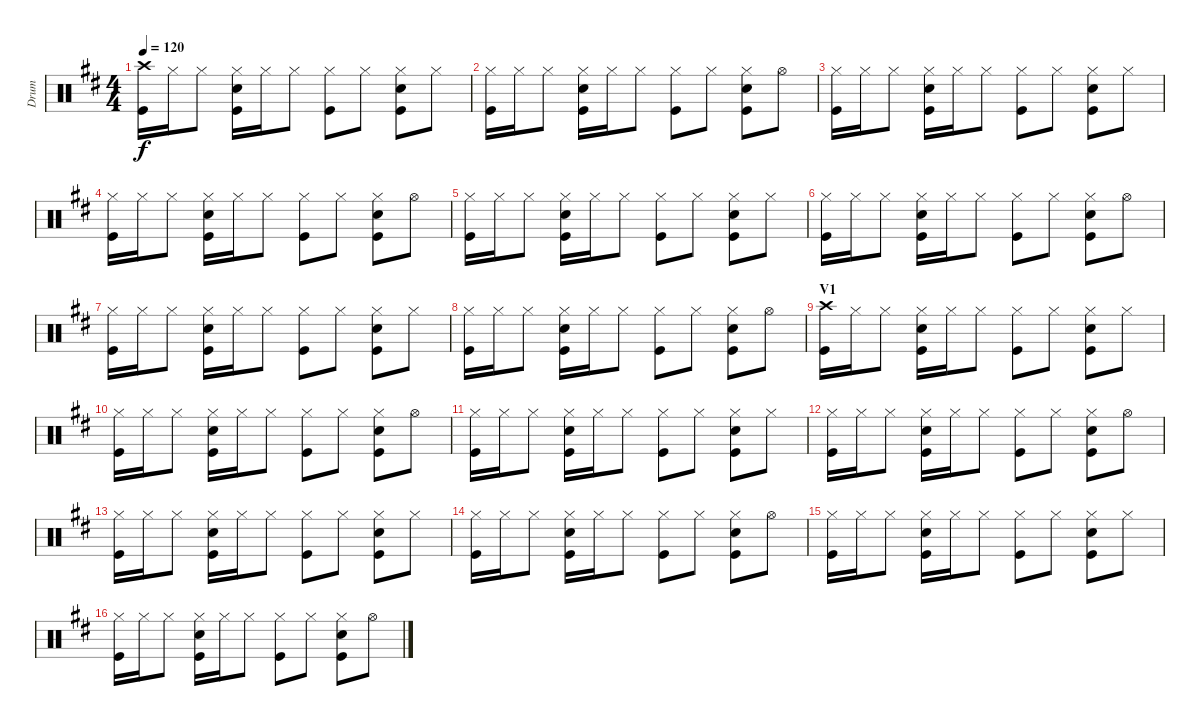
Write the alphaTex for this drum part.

\track ("Drum" "Drum") {instrument percussion}
\staff {score}
\articulation defaults
\ts (4 4)
\tempo 120
\clef neutral
\ks d
("Crash high (hit)" "Kick (hit)").16{dy f} "Hi-Hat (closed)".16 "Hi-Hat (closed)".8 ("Hi-Hat (closed)" "Snare (hit) 2" "Kick (hit)").16 "Hi-Hat (closed)".16 "Hi-Hat (closed)".8 ("Hi-Hat (closed)" "Kick (hit)").8 "Hi-Hat (closed)".8 ("Hi-Hat (closed)" "Snare (hit) 2" "Kick (hit)").8 "Hi-Hat (closed)".8 |
("Hi-Hat (closed)" "Kick (hit)").16 "Hi-Hat (closed)".16 "Hi-Hat (closed)".8 ("Hi-Hat (closed)" "Snare (hit) 2" "Kick (hit)").16 "Hi-Hat (closed)".16 "Hi-Hat (closed)".8 ("Hi-Hat (closed)" "Kick (hit)").8 "Hi-Hat (closed)".8 ("Hi-Hat (closed)" "Snare (hit) 2" "Kick (hit)").8 "Hi-Hat (open)".8 |
("Hi-Hat (closed)" "Kick (hit)").16 "Hi-Hat (closed)".16 "Hi-Hat (closed)".8 ("Hi-Hat (closed)" "Snare (hit) 2" "Kick (hit)").16 "Hi-Hat (closed)".16 "Hi-Hat (closed)".8 ("Hi-Hat (closed)" "Kick (hit)").8 "Hi-Hat (closed)".8 ("Hi-Hat (closed)" "Snare (hit) 2" "Kick (hit)").8 "Hi-Hat (closed)".8 |
("Hi-Hat (closed)" "Kick (hit)").16 "Hi-Hat (closed)".16 "Hi-Hat (closed)".8 ("Hi-Hat (closed)" "Snare (hit) 2" "Kick (hit)").16 "Hi-Hat (closed)".16 "Hi-Hat (closed)".8 ("Hi-Hat (closed)" "Kick (hit)").8 "Hi-Hat (closed)".8 ("Hi-Hat (closed)" "Snare (hit) 2" "Kick (hit)").8 "Hi-Hat (open)".8 |
("Hi-Hat (closed)" "Kick (hit)").16 "Hi-Hat (closed)".16 "Hi-Hat (closed)".8 ("Hi-Hat (closed)" "Snare (hit) 2" "Kick (hit)").16 "Hi-Hat (closed)".16 "Hi-Hat (closed)".8 ("Hi-Hat (closed)" "Kick (hit)").8 "Hi-Hat (closed)".8 ("Hi-Hat (closed)" "Snare (hit) 2" "Kick (hit)").8 "Hi-Hat (closed)".8 |
("Hi-Hat (closed)" "Kick (hit)").16 "Hi-Hat (closed)".16 "Hi-Hat (closed)".8 ("Hi-Hat (closed)" "Snare (hit) 2" "Kick (hit)").16 "Hi-Hat (closed)".16 "Hi-Hat (closed)".8 ("Hi-Hat (closed)" "Kick (hit)").8 "Hi-Hat (closed)".8 ("Hi-Hat (closed)" "Snare (hit) 2" "Kick (hit)").8 "Hi-Hat (open)".8 |
("Hi-Hat (closed)" "Kick (hit)").16 "Hi-Hat (closed)".16 "Hi-Hat (closed)".8 ("Hi-Hat (closed)" "Snare (hit) 2" "Kick (hit)").16 "Hi-Hat (closed)".16 "Hi-Hat (closed)".8 ("Hi-Hat (closed)" "Kick (hit)").8 "Hi-Hat (closed)".8 ("Hi-Hat (closed)" "Snare (hit) 2" "Kick (hit)").8 "Hi-Hat (closed)".8 |
("Hi-Hat (closed)" "Kick (hit)").16 "Hi-Hat (closed)".16 "Hi-Hat (closed)".8 ("Hi-Hat (closed)" "Snare (hit) 2" "Kick (hit)").16 "Hi-Hat (closed)".16 "Hi-Hat (closed)".8 ("Hi-Hat (closed)" "Kick (hit)").8 "Hi-Hat (closed)".8 ("Hi-Hat (closed)" "Snare (hit) 2" "Kick (hit)").8 "Hi-Hat (open)".8 |
\section ("" "V1")
("Crash high (hit)" "Kick (hit)").16 "Hi-Hat (closed)".16 "Hi-Hat (closed)".8 ("Hi-Hat (closed)" "Snare (hit) 2" "Kick (hit)").16 "Hi-Hat (closed)".16 "Hi-Hat (closed)".8 ("Hi-Hat (closed)" "Kick (hit)").8 "Hi-Hat (closed)".8 ("Hi-Hat (closed)" "Snare (hit) 2" "Kick (hit)").8 "Hi-Hat (closed)".8 |
("Hi-Hat (closed)" "Kick (hit)").16 "Hi-Hat (closed)".16 "Hi-Hat (closed)".8 ("Hi-Hat (closed)" "Snare (hit) 2" "Kick (hit)").16 "Hi-Hat (closed)".16 "Hi-Hat (closed)".8 ("Hi-Hat (closed)" "Kick (hit)").8 "Hi-Hat (closed)".8 ("Hi-Hat (closed)" "Snare (hit) 2" "Kick (hit)").8 "Hi-Hat (open)".8 |
("Hi-Hat (closed)" "Kick (hit)").16 "Hi-Hat (closed)".16 "Hi-Hat (closed)".8 ("Hi-Hat (closed)" "Snare (hit) 2" "Kick (hit)").16 "Hi-Hat (closed)".16 "Hi-Hat (closed)".8 ("Hi-Hat (closed)" "Kick (hit)").8 "Hi-Hat (closed)".8 ("Hi-Hat (closed)" "Snare (hit) 2" "Kick (hit)").8 "Hi-Hat (closed)".8 |
("Hi-Hat (closed)" "Kick (hit)").16 "Hi-Hat (closed)".16 "Hi-Hat (closed)".8 ("Hi-Hat (closed)" "Snare (hit) 2" "Kick (hit)").16 "Hi-Hat (closed)".16 "Hi-Hat (closed)".8 ("Hi-Hat (closed)" "Kick (hit)").8 "Hi-Hat (closed)".8 ("Hi-Hat (closed)" "Snare (hit) 2" "Kick (hit)").8 "Hi-Hat (open)".8 |
("Hi-Hat (closed)" "Kick (hit)").16 "Hi-Hat (closed)".16 "Hi-Hat (closed)".8 ("Hi-Hat (closed)" "Snare (hit) 2" "Kick (hit)").16 "Hi-Hat (closed)".16 "Hi-Hat (closed)".8 ("Hi-Hat (closed)" "Kick (hit)").8 "Hi-Hat (closed)".8 ("Hi-Hat (closed)" "Snare (hit) 2" "Kick (hit)").8 "Hi-Hat (closed)".8 |
("Hi-Hat (closed)" "Kick (hit)").16 "Hi-Hat (closed)".16 "Hi-Hat (closed)".8 ("Hi-Hat (closed)" "Snare (hit) 2" "Kick (hit)").16 "Hi-Hat (closed)".16 "Hi-Hat (closed)".8 ("Hi-Hat (closed)" "Kick (hit)").8 "Hi-Hat (closed)".8 ("Hi-Hat (closed)" "Snare (hit) 2" "Kick (hit)").8 "Hi-Hat (open)".8 |
("Hi-Hat (closed)" "Kick (hit)").16 "Hi-Hat (closed)".16 "Hi-Hat (closed)".8 ("Hi-Hat (closed)" "Snare (hit) 2" "Kick (hit)").16 "Hi-Hat (closed)".16 "Hi-Hat (closed)".8 ("Hi-Hat (closed)" "Kick (hit)").8 "Hi-Hat (closed)".8 ("Hi-Hat (closed)" "Snare (hit) 2" "Kick (hit)").8 "Hi-Hat (closed)".8 |
("Hi-Hat (closed)" "Kick (hit)").16 "Hi-Hat (closed)".16 "Hi-Hat (closed)".8 ("Hi-Hat (closed)" "Snare (hit) 2" "Kick (hit)").16 "Hi-Hat (closed)".16 "Hi-Hat (closed)".8 ("Hi-Hat (closed)" "Kick (hit)").8 "Hi-Hat (closed)".8 ("Hi-Hat (closed)" "Snare (hit) 2" "Kick (hit)").8 "Hi-Hat (open)".8
